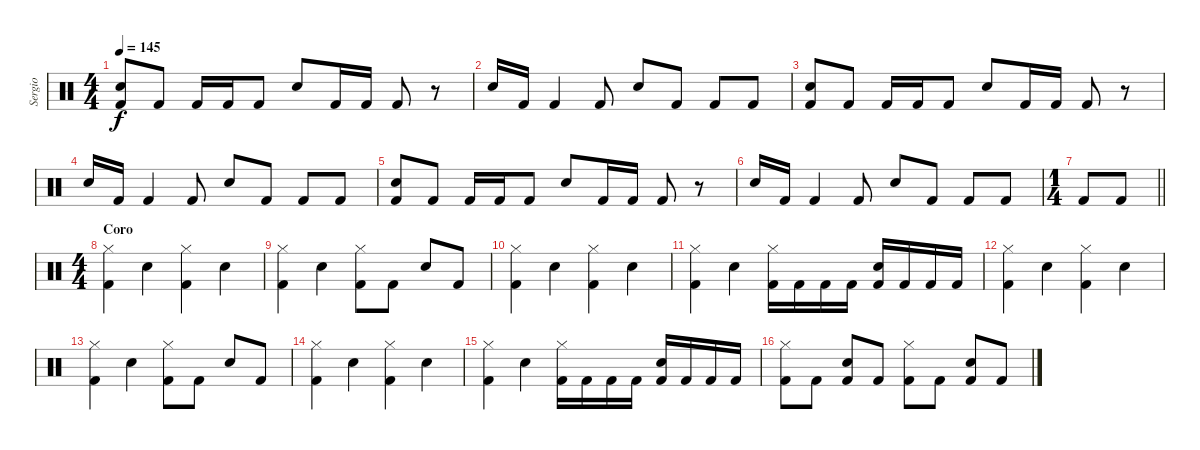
\track ("Sergio" "Sergio") {instrument percussion}
\staff {score}
\articulation defaults
\ts (4 4)
\tempo 145
\clef neutral
\ks c
("Electric Snare (hit)" "Kick (hit) 2").8{dy f} "Kick (hit) 2".8 "Kick (hit) 2".16 "Kick (hit) 2".16 "Kick (hit) 2".8 "Electric Snare (hit)".8 "Kick (hit) 2".16 "Kick (hit) 2".16 "Kick (hit) 2".8 r.8 |
"Electric Snare (hit)".16 "Kick (hit) 2".16 "Kick (hit) 2".4 "Kick (hit) 2".8 "Electric Snare (hit)".8 "Kick (hit) 2".8 "Kick (hit) 2".8 "Kick (hit) 2".8 |
("Electric Snare (hit)" "Kick (hit) 2").8 "Kick (hit) 2".8 "Kick (hit) 2".16 "Kick (hit) 2".16 "Kick (hit) 2".8 "Electric Snare (hit)".8 "Kick (hit) 2".16 "Kick (hit) 2".16 "Kick (hit) 2".8 r.8 |
"Electric Snare (hit)".16 "Kick (hit) 2".16 "Kick (hit) 2".4 "Kick (hit) 2".8 "Electric Snare (hit)".8 "Kick (hit) 2".8 "Kick (hit) 2".8 "Kick (hit) 2".8 |
("Electric Snare (hit)" "Kick (hit) 2").8 "Kick (hit) 2".8 "Kick (hit) 2".16 "Kick (hit) 2".16 "Kick (hit) 2".8 "Electric Snare (hit)".8 "Kick (hit) 2".16 "Kick (hit) 2".16 "Kick (hit) 2".8 r.8 |
"Electric Snare (hit)".16 "Kick (hit) 2".16 "Kick (hit) 2".4 "Kick (hit) 2".8 "Electric Snare (hit)".8 "Kick (hit) 2".8 "Kick (hit) 2".8 "Kick (hit) 2".8 |
\ts (1 4)
\barLineRight lightlight "Kick (hit) 2".8 "Kick (hit) 2".8
|
\ts (4 4)
\section ("" "Coro")
("Hi-Hat (closed)" "Kick (hit) 2").4 "Electric Snare (hit)".4 ("Hi-Hat (closed)" "Kick (hit) 2").4 "Electric Snare (hit)".4 |
("Hi-Hat (closed)" "Kick (hit) 2").4 "Electric Snare (hit)".4 ("Hi-Hat (closed)" "Kick (hit) 2").8 "Kick (hit) 2".8 "Electric Snare (hit)".8 "Kick (hit) 2".8 |
("Hi-Hat (closed)" "Kick (hit) 2").4 "Electric Snare (hit)".4 ("Hi-Hat (closed)" "Kick (hit) 2").4 "Electric Snare (hit)".4 |
("Hi-Hat (closed)" "Kick (hit) 2").4 "Electric Snare (hit)".4 ("Hi-Hat (closed)" "Kick (hit) 2").16 "Kick (hit) 2".16 "Kick (hit) 2".16 "Kick (hit) 2".16 ("Electric Snare (hit)" "Kick (hit) 2").16 "Kick (hit) 2".16 "Kick (hit) 2".16 "Kick (hit) 2".16 |
("Hi-Hat (closed)" "Kick (hit) 2").4 "Electric Snare (hit)".4 ("Hi-Hat (closed)" "Kick (hit) 2").4 "Electric Snare (hit)".4 |
("Hi-Hat (closed)" "Kick (hit) 2").4 "Electric Snare (hit)".4 ("Hi-Hat (closed)" "Kick (hit) 2").8 "Kick (hit) 2".8 "Electric Snare (hit)".8 "Kick (hit) 2".8 |
("Hi-Hat (closed)" "Kick (hit) 2").4 "Electric Snare (hit)".4 ("Hi-Hat (closed)" "Kick (hit) 2").4 "Electric Snare (hit)".4 |
("Hi-Hat (closed)" "Kick (hit) 2").4 "Electric Snare (hit)".4 ("Hi-Hat (closed)" "Kick (hit) 2").16 "Kick (hit) 2".16 "Kick (hit) 2".16 "Kick (hit) 2".16 ("Electric Snare (hit)" "Kick (hit) 2").16 "Kick (hit) 2".16 "Kick (hit) 2".16 "Kick (hit) 2".16 |
("Hi-Hat (closed)" "Kick (hit) 2").8 "Kick (hit) 2".8 ("Electric Snare (hit)" "Kick (hit) 2").8 "Kick (hit) 2".8 ("Hi-Hat (closed)" "Kick (hit) 2").8 "Kick (hit) 2".8 ("Electric Snare (hit)" "Kick (hit) 2").8 "Kick (hit) 2".8
